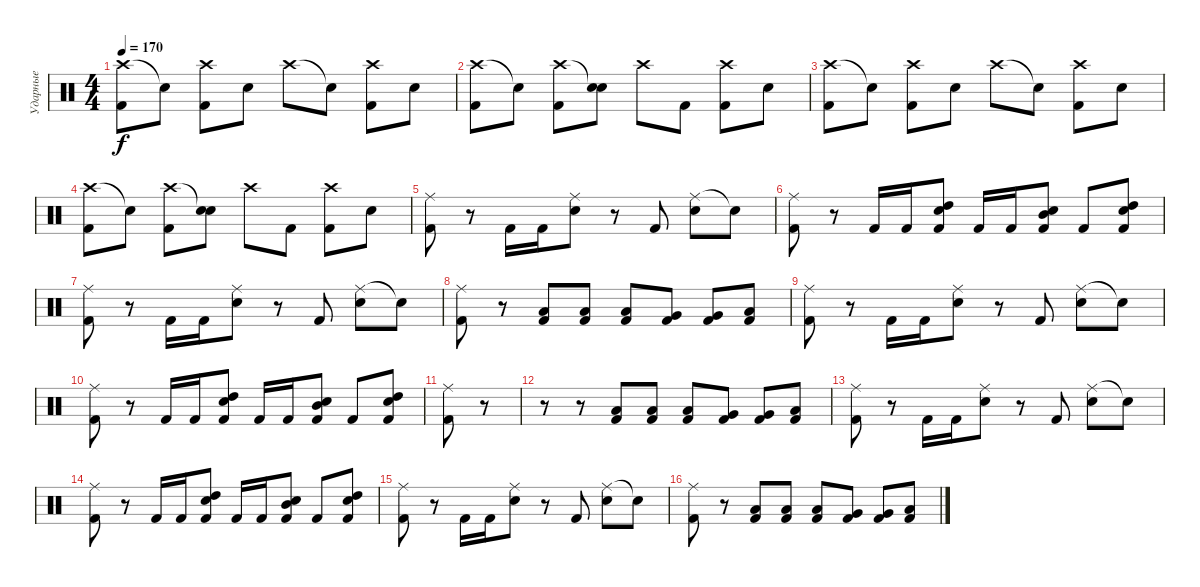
\track ("Ударные" "Ударные") {instrument percussion}
\staff {score}
\articulation defaults
\ts (4 4)
\tempo 170
\clef neutral
\ks c
("Crash high (hit)" "Kick (hit) 2").8{dy f} "Snare (hit)"{t}.8 ("Crash high (hit)" "Kick (hit) 2").8 "Snare (hit) 2".8 "Crash high (hit)".8 "Snare (hit)"{t}.8 ("Crash high (hit)" "Kick (hit) 2").8 "Snare (hit) 2".8 |
("Crash high (hit)" "Kick (hit) 2").8 "Snare (hit)"{t}.8 ("Crash high (hit)" "Kick (hit) 2").8 ("Snare (hit)"{t} "Snare (hit) 2").8 "Crash high (hit)".8 "Kick (hit) 2".8 ("Crash high (hit)" "Kick (hit) 2").8 "Snare (hit) 2".8 |
("Crash high (hit)" "Kick (hit) 2").8 "Snare (hit)"{t}.8 ("Crash high (hit)" "Kick (hit) 2").8 "Snare (hit) 2".8 "Crash high (hit)".8 "Snare (hit)"{t}.8 ("Crash high (hit)" "Kick (hit) 2").8 "Snare (hit) 2".8 |
("Crash high (hit)" "Kick (hit) 2").8 "Snare (hit)"{t}.8 ("Crash high (hit)" "Kick (hit) 2").8 ("Snare (hit)"{t} "Snare (hit) 2").8 "Crash high (hit)".8 "Kick (hit) 2".8 ("Crash high (hit)" "Kick (hit) 2").8 "Snare (hit) 2".8 |
("Ride (middle)" "Kick (hit) 2").8 r.8 "Kick (hit) 2".16 "Kick (hit) 2".16 ("Ride (middle)" "Snare (hit) 2").8 r.8 "Kick (hit) 2".8 ("Ride (middle)" "Snare (hit) 2").8 "Snare (hit)"{t}.8 |
("Ride (middle)" "Kick (hit) 2").8 r.8 "Kick (hit) 2".16 "Kick (hit) 2".16 ("Snare (hit) 2" "Kick (hit) 2" "High Tom (hit)").8 "Kick (hit) 2".16 "Kick (hit) 2".16 ("Snare (hit) 2" "Kick (hit) 2" "Mid Tom (hit)").8 "Kick (hit) 2".8 ("Snare (hit) 2" "Kick (hit) 2" "High Tom (hit)").8 |
("Ride (middle)" "Kick (hit) 2").8 r.8 "Kick (hit) 2".16 "Kick (hit) 2".16 ("Ride (middle)" "Snare (hit) 2").8 r.8 "Kick (hit) 2".8 ("Ride (middle)" "Snare (hit) 2").8 "Snare (hit)"{t}.8 |
("Ride (middle)" "Kick (hit) 2").8 r.8 ("Kick (hit) 2" "Low Floor Tom (hit)").8 ("Kick (hit) 2" "Low Floor Tom (hit)").8 ("Kick (hit) 2" "Low Floor Tom (hit)").8 ("Kick (hit) 2" "Very Low Tom (hit)").8 ("Kick (hit) 2" "Very Low Tom (hit)").8 ("Kick (hit) 2" "Low Tom (hit)").8 |
("Ride (middle)" "Kick (hit) 2").8 r.8 "Kick (hit) 2".16 "Kick (hit) 2".16 ("Ride (middle)" "Snare (hit) 2").8 r.8 "Kick (hit) 2".8 ("Ride (middle)" "Snare (hit) 2").8 "Snare (hit)"{t}.8 |
("Ride (middle)" "Kick (hit) 2").8 r.8 "Kick (hit) 2".16 "Kick (hit) 2".16 ("Snare (hit) 2" "Kick (hit) 2" "High Tom (hit)").8 "Kick (hit) 2".16 "Kick (hit) 2".16 ("Snare (hit) 2" "Kick (hit) 2" "Mid Tom (hit)").8 "Kick (hit) 2".8 ("Snare (hit) 2" "Kick (hit) 2" "High Tom (hit)").8 |
("Ride (middle)" "Kick (hit) 2").8 r.8 |
r.8 r.8 ("Kick (hit) 2" "Low Floor Tom (hit)").8 ("Kick (hit) 2" "Low Floor Tom (hit)").8 ("Kick (hit) 2" "Low Floor Tom (hit)").8 ("Kick (hit) 2" "Very Low Tom (hit)").8 ("Kick (hit) 2" "Very Low Tom (hit)").8 ("Kick (hit) 2" "Low Tom (hit)").8 |
("Ride (middle)" "Kick (hit) 2").8 r.8 "Kick (hit) 2".16 "Kick (hit) 2".16 ("Ride (middle)" "Snare (hit) 2").8 r.8 "Kick (hit) 2".8 ("Ride (middle)" "Snare (hit) 2").8 "Snare (hit)"{t}.8 |
("Ride (middle)" "Kick (hit) 2").8 r.8 "Kick (hit) 2".16 "Kick (hit) 2".16 ("Snare (hit) 2" "Kick (hit) 2" "High Tom (hit)").8 "Kick (hit) 2".16 "Kick (hit) 2".16 ("Snare (hit) 2" "Kick (hit) 2" "Mid Tom (hit)").8 "Kick (hit) 2".8 ("Snare (hit) 2" "Kick (hit) 2" "High Tom (hit)").8 |
("Ride (middle)" "Kick (hit) 2").8 r.8 "Kick (hit) 2".16 "Kick (hit) 2".16 ("Ride (middle)" "Snare (hit) 2").8 r.8 "Kick (hit) 2".8 ("Ride (middle)" "Snare (hit) 2").8 "Snare (hit)"{t}.8 |
("Ride (middle)" "Kick (hit) 2").8 r.8 ("Kick (hit) 2" "Low Floor Tom (hit)").8 ("Kick (hit) 2" "Low Floor Tom (hit)").8 ("Kick (hit) 2" "Low Floor Tom (hit)").8 ("Kick (hit) 2" "Very Low Tom (hit)").8 ("Kick (hit) 2" "Very Low Tom (hit)").8 ("Kick (hit) 2" "Low Tom (hit)").8
